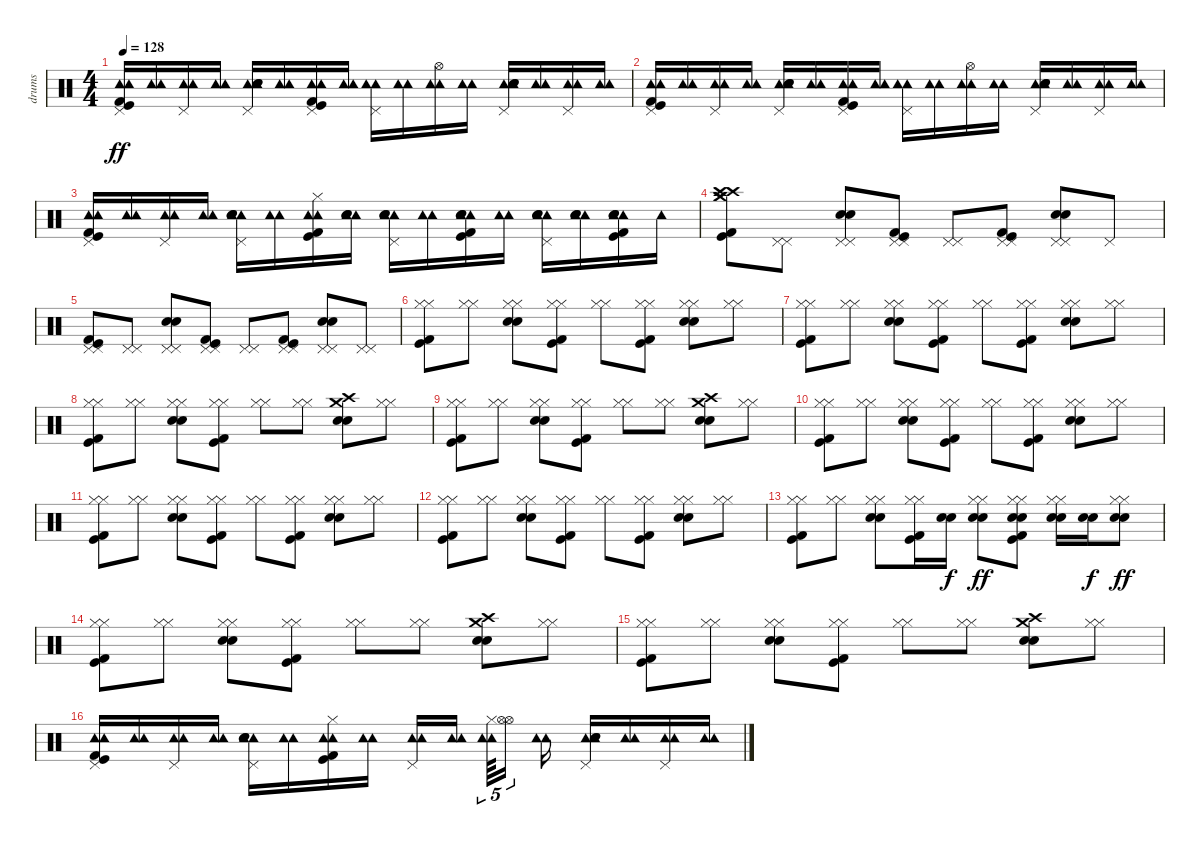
\track ("drums" "drums") {instrument percussion}
\staff {score}
\articulation defaults
\ts (4 4)
\tempo 128
\clef neutral
\ks c
("Tambourine (hit)" "Tambourine (hit)" "Pedal Hi-Hat (hit)" "Kick (hit)" "Kick (hit) 2").16{dy ff} ("Tambourine (hit)" "Tambourine (hit)").16 ("Tambourine (hit)" "Tambourine (hit)" "Pedal Hi-Hat (hit)").16 ("Tambourine (hit)" "Tambourine (hit)").16 ("Tambourine (hit)" "Tambourine (hit)" "Pedal Hi-Hat (hit)" "Snare (hit) 2" "Snare (hit) 2").16 ("Tambourine (hit)" "Tambourine (hit)").16 ("Tambourine (hit)" "Tambourine (hit)" "Pedal Hi-Hat (hit)" "Kick (hit)" "Kick (hit) 2").16 ("Tambourine (hit)" "Tambourine (hit)").16 ("Tambourine (hit)" "Tambourine (hit)" "Pedal Hi-Hat (hit)").16 ("Tambourine (hit)" "Tambourine (hit)").16 ("Tambourine (hit)" "Tambourine (hit)" "Hi-Hat (open)").16 ("Tambourine (hit)" "Tambourine (hit)").16 ("Tambourine (hit)" "Tambourine (hit)" "Pedal Hi-Hat (hit)" "Snare (hit) 2" "Snare (hit) 2").16 ("Tambourine (hit)" "Tambourine (hit)").16 ("Tambourine (hit)" "Tambourine (hit)" "Pedal Hi-Hat (hit)").16 ("Tambourine (hit)" "Tambourine (hit)").16 |
("Tambourine (hit)" "Tambourine (hit)" "Pedal Hi-Hat (hit)" "Kick (hit)" "Kick (hit) 2").16 ("Tambourine (hit)" "Tambourine (hit)").16 ("Tambourine (hit)" "Tambourine (hit)" "Pedal Hi-Hat (hit)").16 ("Tambourine (hit)" "Tambourine (hit)").16 ("Tambourine (hit)" "Tambourine (hit)" "Pedal Hi-Hat (hit)" "Snare (hit) 2" "Snare (hit) 2").16 ("Tambourine (hit)" "Tambourine (hit)").16 ("Tambourine (hit)" "Tambourine (hit)" "Pedal Hi-Hat (hit)" "Kick (hit)" "Kick (hit) 2").16 ("Tambourine (hit)" "Tambourine (hit)").16 ("Tambourine (hit)" "Tambourine (hit)" "Pedal Hi-Hat (hit)").16 ("Tambourine (hit)" "Tambourine (hit)").16 ("Tambourine (hit)" "Tambourine (hit)" "Hi-Hat (open)").16 ("Tambourine (hit)" "Tambourine (hit)").16 ("Tambourine (hit)" "Tambourine (hit)" "Pedal Hi-Hat (hit)" "Snare (hit) 2" "Snare (hit) 2").16 ("Tambourine (hit)" "Tambourine (hit)").16 ("Tambourine (hit)" "Tambourine (hit)" "Pedal Hi-Hat (hit)").16 ("Tambourine (hit)" "Tambourine (hit)").16 |
("Tambourine (hit)" "Tambourine (hit)" "Pedal Hi-Hat (hit)" "Kick (hit)" "Kick (hit) 2").16 ("Tambourine (hit)" "Tambourine (hit)").16 ("Tambourine (hit)" "Tambourine (hit)" "Pedal Hi-Hat (hit)").16 ("Tambourine (hit)" "Tambourine (hit)").16 ("Tambourine (hit)" "Tambourine (hit)" "Pedal Hi-Hat (hit)" "Snare (hit) 2" "Snare (hit) 2").16 ("Tambourine (hit)" "Tambourine (hit)").16 ("Tambourine (hit)" "Hi-Hat (closed)" "Tambourine (hit)" "Kick (hit)" "Kick (hit) 2").16 ("Tambourine (hit)" "Tambourine (hit)" "Snare (hit) 2" "Snare (hit) 2").16 ("Tambourine (hit)" "Tambourine (hit)" "Pedal Hi-Hat (hit)" "Snare (hit) 2" "Snare (hit) 2").16 ("Tambourine (hit)" "Tambourine (hit)").16 ("Tambourine (hit)" "Tambourine (hit)" "Snare (hit) 2" "Snare (hit) 2" "Kick (hit)" "Kick (hit) 2").16 ("Tambourine (hit)" "Tambourine (hit)").16 ("Tambourine (hit)" "Tambourine (hit)" "Pedal Hi-Hat (hit)" "Snare (hit) 2" "Snare (hit) 2").16 ("Tambourine (hit)" "Tambourine (hit)" "Snare (hit) 2" "Snare (hit) 2").16 ("Tambourine (hit)" "Tambourine (hit)" "Snare (hit) 2" "Snare (hit) 2" "Kick (hit)" "Kick (hit) 2").16 "Tambourine (hit)".16 |
("Crash medium (hit)" "Crash medium (hit)" "Crash high (hit)" "Crash high (hit)" "Kick (hit)" "Kick (hit) 2").8 ("Pedal Hi-Hat (hit)" "Pedal Hi-Hat (hit)").8 ("Pedal Hi-Hat (hit)" "Pedal Hi-Hat (hit)" "Snare (hit) 2" "Snare (hit) 2").8 ("Pedal Hi-Hat (hit)" "Pedal Hi-Hat (hit)" "Kick (hit)" "Kick (hit) 2").8 ("Pedal Hi-Hat (hit)" "Pedal Hi-Hat (hit)").8 ("Pedal Hi-Hat (hit)" "Pedal Hi-Hat (hit)" "Kick (hit)" "Kick (hit) 2").8 ("Pedal Hi-Hat (hit)" "Pedal Hi-Hat (hit)" "Snare (hit) 2" "Snare (hit) 2").8 "Pedal Hi-Hat (hit)".8 |
("Pedal Hi-Hat (hit)" "Pedal Hi-Hat (hit)" "Kick (hit)" "Kick (hit) 2").8 ("Pedal Hi-Hat (hit)" "Pedal Hi-Hat (hit)").8 ("Pedal Hi-Hat (hit)" "Pedal Hi-Hat (hit)" "Snare (hit) 2" "Snare (hit) 2").8 ("Pedal Hi-Hat (hit)" "Pedal Hi-Hat (hit)" "Kick (hit)" "Kick (hit) 2").8 ("Pedal Hi-Hat (hit)" "Pedal Hi-Hat (hit)").8 ("Pedal Hi-Hat (hit)" "Pedal Hi-Hat (hit)" "Kick (hit)" "Kick (hit) 2").8 ("Pedal Hi-Hat (hit)" "Pedal Hi-Hat (hit)" "Snare (hit) 2" "Snare (hit) 2").8 ("Pedal Hi-Hat (hit)" "Pedal Hi-Hat (hit)").8 |
("Hi-Hat (closed)" "Hi-Hat (closed)" "Kick (hit)" "Kick (hit) 2").8 ("Hi-Hat (closed)" "Hi-Hat (closed)").8 ("Hi-Hat (closed)" "Hi-Hat (closed)" "Snare (hit) 2" "Snare (hit) 2").8 ("Hi-Hat (closed)" "Hi-Hat (closed)" "Kick (hit)" "Kick (hit) 2").8 ("Hi-Hat (closed)" "Hi-Hat (closed)").8 ("Hi-Hat (closed)" "Hi-Hat (closed)" "Kick (hit)" "Kick (hit) 2").8 ("Hi-Hat (closed)" "Hi-Hat (closed)" "Snare (hit) 2" "Snare (hit) 2").8 ("Hi-Hat (closed)" "Hi-Hat (closed)").8 |
("Hi-Hat (closed)" "Hi-Hat (closed)" "Kick (hit)" "Kick (hit) 2").8 ("Hi-Hat (closed)" "Hi-Hat (closed)").8 ("Hi-Hat (closed)" "Hi-Hat (closed)" "Snare (hit) 2" "Snare (hit) 2").8 ("Hi-Hat (closed)" "Hi-Hat (closed)" "Kick (hit)" "Kick (hit) 2").8 ("Hi-Hat (closed)" "Hi-Hat (closed)").8 ("Hi-Hat (closed)" "Hi-Hat (closed)" "Kick (hit)" "Kick (hit) 2").8 ("Hi-Hat (closed)" "Hi-Hat (closed)" "Snare (hit) 2" "Snare (hit) 2").8 ("Hi-Hat (closed)" "Hi-Hat (closed)").8 |
("Hi-Hat (closed)" "Hi-Hat (closed)" "Kick (hit)" "Kick (hit) 2").8 ("Hi-Hat (closed)" "Hi-Hat (closed)").8 ("Hi-Hat (closed)" "Hi-Hat (closed)" "Snare (hit) 2" "Snare (hit) 2").8 ("Hi-Hat (closed)" "Hi-Hat (closed)" "Kick (hit)" "Kick (hit) 2").8 ("Hi-Hat (closed)" "Hi-Hat (closed)").8 ("Hi-Hat (closed)" "Hi-Hat (closed)").8 ("Crash medium (hit)" "Snare (hit) 2" "Snare (hit) 2" "Crash high (hit)").8 ("Hi-Hat (closed)" "Hi-Hat (closed)").8 |
("Hi-Hat (closed)" "Hi-Hat (closed)" "Kick (hit)" "Kick (hit) 2").8 ("Hi-Hat (closed)" "Hi-Hat (closed)").8 ("Hi-Hat (closed)" "Hi-Hat (closed)" "Snare (hit) 2" "Snare (hit) 2").8 ("Hi-Hat (closed)" "Hi-Hat (closed)" "Kick (hit)" "Kick (hit) 2").8 ("Hi-Hat (closed)" "Hi-Hat (closed)").8 ("Hi-Hat (closed)" "Hi-Hat (closed)").8 ("Crash medium (hit)" "Snare (hit) 2" "Snare (hit) 2" "Crash high (hit)").8 ("Hi-Hat (closed)" "Hi-Hat (closed)").8 |
("Hi-Hat (closed)" "Hi-Hat (closed)" "Kick (hit)" "Kick (hit) 2").8 ("Hi-Hat (closed)" "Hi-Hat (closed)").8 ("Hi-Hat (closed)" "Hi-Hat (closed)" "Snare (hit) 2" "Snare (hit) 2").8 ("Hi-Hat (closed)" "Hi-Hat (closed)" "Kick (hit)" "Kick (hit) 2").8 ("Hi-Hat (closed)" "Hi-Hat (closed)").8 ("Hi-Hat (closed)" "Hi-Hat (closed)" "Kick (hit)" "Kick (hit) 2").8 ("Hi-Hat (closed)" "Hi-Hat (closed)" "Snare (hit) 2" "Snare (hit) 2").8 ("Hi-Hat (closed)" "Hi-Hat (closed)").8 |
("Hi-Hat (closed)" "Hi-Hat (closed)" "Kick (hit)" "Kick (hit) 2").8 ("Hi-Hat (closed)" "Hi-Hat (closed)").8 ("Hi-Hat (closed)" "Hi-Hat (closed)" "Snare (hit) 2" "Snare (hit) 2").8 ("Hi-Hat (closed)" "Hi-Hat (closed)" "Kick (hit)" "Kick (hit) 2").8 ("Hi-Hat (closed)" "Hi-Hat (closed)").8 ("Hi-Hat (closed)" "Hi-Hat (closed)" "Kick (hit)" "Kick (hit) 2").8 ("Hi-Hat (closed)" "Hi-Hat (closed)" "Snare (hit) 2" "Snare (hit) 2").8 ("Hi-Hat (closed)" "Hi-Hat (closed)").8 |
("Hi-Hat (closed)" "Hi-Hat (closed)" "Kick (hit)" "Kick (hit) 2").8 ("Hi-Hat (closed)" "Hi-Hat (closed)").8 ("Hi-Hat (closed)" "Hi-Hat (closed)" "Snare (hit) 2" "Snare (hit) 2").8 ("Hi-Hat (closed)" "Hi-Hat (closed)" "Kick (hit)" "Kick (hit) 2").8 ("Hi-Hat (closed)" "Hi-Hat (closed)").8 ("Hi-Hat (closed)" "Hi-Hat (closed)" "Kick (hit)" "Kick (hit) 2").8 ("Hi-Hat (closed)" "Hi-Hat (closed)" "Snare (hit) 2" "Snare (hit) 2").8 ("Hi-Hat (closed)" "Hi-Hat (closed)").8 |
("Hi-Hat (closed)" "Hi-Hat (closed)" "Kick (hit)" "Kick (hit) 2").8 ("Hi-Hat (closed)" "Hi-Hat (closed)").8 ("Hi-Hat (closed)" "Hi-Hat (closed)" "Snare (hit) 2" "Snare (hit) 2").8 ("Hi-Hat (closed)" "Hi-Hat (closed)" "Kick (hit)" "Kick (hit) 2").16 ("Snare (hit) 2" "Snare (hit) 2").16{dy f} ("Hi-Hat (closed)" "Hi-Hat (closed)" "Snare (hit) 2" "Snare (hit) 2").8{dy ff} ("Hi-Hat (closed)" "Hi-Hat (closed)" "Snare (hit) 2" "Snare (hit) 2" "Kick (hit)" "Kick (hit) 2").8 ("Hi-Hat (closed)" "Hi-Hat (closed)" "Snare (hit) 2" "Snare (hit) 2").16 ("Snare (hit) 2" "Snare (hit) 2").16{dy f} ("Hi-Hat (closed)" "Hi-Hat (closed)" "Snare (hit) 2" "Snare (hit) 2").8{dy ff} |
("Hi-Hat (closed)" "Hi-Hat (closed)" "Kick (hit)" "Kick (hit) 2").8 ("Hi-Hat (closed)" "Hi-Hat (closed)").8 ("Hi-Hat (closed)" "Hi-Hat (closed)" "Snare (hit) 2" "Snare (hit) 2").8 ("Hi-Hat (closed)" "Hi-Hat (closed)" "Kick (hit)" "Kick (hit) 2").8 ("Hi-Hat (closed)" "Hi-Hat (closed)").8 ("Hi-Hat (closed)" "Hi-Hat (closed)").8 ("Crash medium (hit)" "Snare (hit) 2" "Snare (hit) 2" "Crash high (hit)").8 ("Hi-Hat (closed)" "Hi-Hat (closed)").8 |
("Hi-Hat (closed)" "Hi-Hat (closed)" "Kick (hit)" "Kick (hit) 2").8 ("Hi-Hat (closed)" "Hi-Hat (closed)").8 ("Hi-Hat (closed)" "Hi-Hat (closed)" "Snare (hit) 2" "Snare (hit) 2").8 ("Hi-Hat (closed)" "Hi-Hat (closed)" "Kick (hit)" "Kick (hit) 2").8 ("Hi-Hat (closed)" "Hi-Hat (closed)").8 ("Hi-Hat (closed)" "Hi-Hat (closed)").8 ("Crash medium (hit)" "Snare (hit) 2" "Snare (hit) 2" "Crash high (hit)").8 ("Hi-Hat (closed)" "Hi-Hat (closed)").8 |
("Tambourine (hit)" "Tambourine (hit)" "Pedal Hi-Hat (hit)" "Kick (hit)" "Kick (hit) 2").16 ("Tambourine (hit)" "Tambourine (hit)").16 ("Tambourine (hit)" "Tambourine (hit)" "Pedal Hi-Hat (hit)").16 ("Tambourine (hit)" "Tambourine (hit)").16 ("Tambourine (hit)" "Tambourine (hit)" "Pedal Hi-Hat (hit)" "Snare (hit) 2" "Snare (hit) 2").16 ("Tambourine (hit)" "Tambourine (hit)").16 ("Tambourine (hit)" "Tambourine (hit)" "Hi-Hat (closed)" "Kick (hit)" "Kick (hit) 2").16 ("Tambourine (hit)" "Tambourine (hit)").16 ("Tambourine (hit)" "Tambourine (hit)" "Pedal Hi-Hat (hit)").16 ("Tambourine (hit)" "Tambourine (hit)").16 ("Tambourine (hit)" "Tambourine (hit)" "Hi-Hat (closed)").64{tu (5 4)} ("Hi-Hat (open)" "Hi-Hat (open)").16{tu (5 4)} ("Tambourine (hit)" "Tambourine (hit)").16 ("Tambourine (hit)" "Tambourine (hit)" "Pedal Hi-Hat (hit)" "Snare (hit) 2" "Snare (hit) 2").16 ("Tambourine (hit)" "Tambourine (hit)").16 ("Tambourine (hit)" "Tambourine (hit)" "Pedal Hi-Hat (hit)").16 ("Tambourine (hit)" "Tambourine (hit)").16
